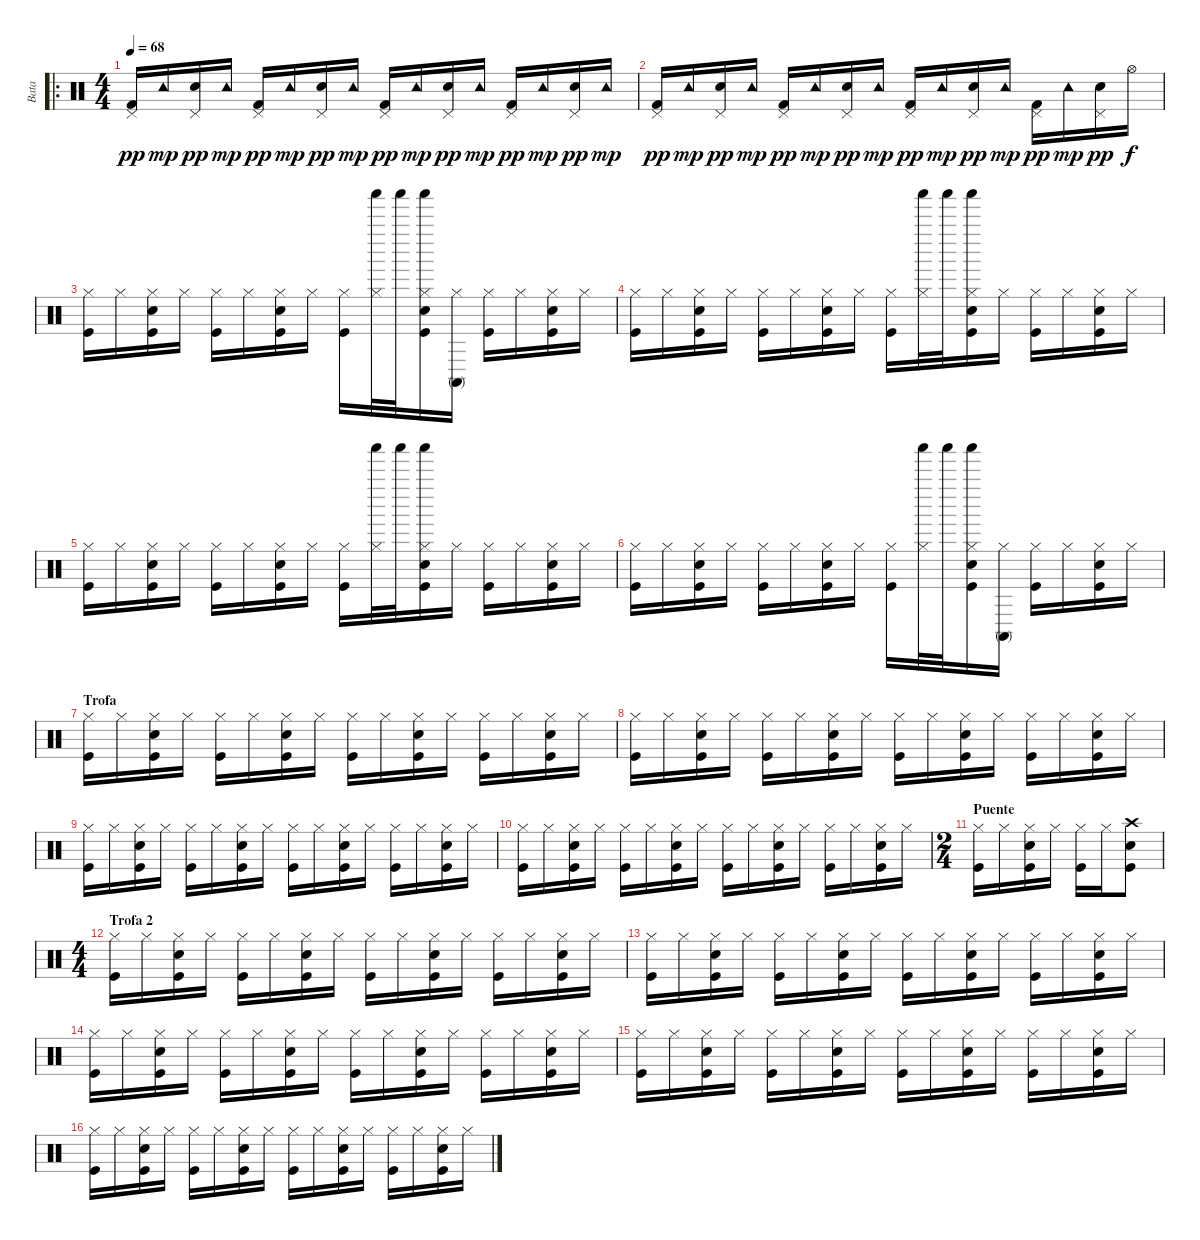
\track ("Bata" "Bata") {instrument percussion}
\staff {score}
\articulation defaults
\ro
\ts (4 4)
\tempo 68
\clef neutral
\ks c
("Pedal Hi-Hat (hit)" "Kick (hit) 2").16{dy pp} "Tambourine (hit)".16{dy mp} ("Pedal Hi-Hat (hit)" "Snare (hit) 2").16{dy pp} "Tambourine (hit)".16{dy mp} ("Pedal Hi-Hat (hit)" "Kick (hit) 2").16{dy pp} "Tambourine (hit)".16{dy mp} ("Pedal Hi-Hat (hit)" "Snare (hit) 2").16{dy pp} "Tambourine (hit)".16{dy mp} ("Pedal Hi-Hat (hit)" "Kick (hit) 2").16{dy pp} "Tambourine (hit)".16{dy mp} ("Pedal Hi-Hat (hit)" "Snare (hit) 2").16{dy pp} "Tambourine (hit)".16{dy mp} ("Pedal Hi-Hat (hit)" "Kick (hit) 2").16{dy pp} "Tambourine (hit)".16{dy mp} ("Pedal Hi-Hat (hit)" "Snare (hit) 2").16{dy pp} "Tambourine (hit)".16{dy mp} |
("Pedal Hi-Hat (hit)" "Kick (hit) 2").16{dy pp} "Tambourine (hit)".16{dy mp} ("Pedal Hi-Hat (hit)" "Snare (hit) 2").16{dy pp} "Tambourine (hit)".16{dy mp} ("Pedal Hi-Hat (hit)" "Kick (hit) 2").16{dy pp} "Tambourine (hit)".16{dy mp} ("Pedal Hi-Hat (hit)" "Snare (hit) 2").16{dy pp} "Tambourine (hit)".16{dy mp} ("Pedal Hi-Hat (hit)" "Kick (hit) 2").16{dy pp} "Tambourine (hit)".16{dy mp} ("Pedal Hi-Hat (hit)" "Snare (hit) 2").16{dy pp} "Tambourine (hit)".16{dy mp} ("Pedal Hi-Hat (hit)" "Kick (hit) 2").16{dy pp} "Tambourine (hit)".16{dy mp} ("Pedal Hi-Hat (hit)" "Snare (hit) 2").16{dy pp} "Hi-Hat (open)".16{dy f} |
("Hi-Hat (closed)" "Kick (hit)").16 "Hi-Hat (closed)".16 ("Hi-Hat (closed)" "Electric Snare (hit)" "Kick (hit)").16 "Hi-Hat (closed)".16 ("Hi-Hat (closed)" "Kick (hit)").16 "Hi-Hat (closed)".16 ("Hi-Hat (closed)" "Electric Snare (hit)" "Kick (hit)").16 "Hi-Hat (closed)".16 ("Hi-Hat (closed)" "Kick (hit)").16 ("Hi-Hat (closed)" "Shaker (hit)").32 "Shaker (hit)".32 ("Hi-Hat (closed)" "Shaker (hit)" "Electric Snare (hit)" "Kick (hit)").16 ("Hi-Hat (closed)" "Conga high (mute)").16 ("Hi-Hat (closed)" "Kick (hit)").16 "Hi-Hat (closed)".16 ("Hi-Hat (closed)" "Electric Snare (hit)" "Kick (hit)").16 "Hi-Hat (closed)".16 |
("Hi-Hat (closed)" "Kick (hit)").16 "Hi-Hat (closed)".16 ("Hi-Hat (closed)" "Electric Snare (hit)" "Kick (hit)").16 "Hi-Hat (closed)".16 ("Hi-Hat (closed)" "Kick (hit)").16 "Hi-Hat (closed)".16 ("Hi-Hat (closed)" "Electric Snare (hit)" "Kick (hit)").16 "Hi-Hat (closed)".16 ("Hi-Hat (closed)" "Kick (hit)").16 ("Hi-Hat (closed)" "Shaker (hit)").32 "Shaker (hit)".32 ("Hi-Hat (closed)" "Shaker (hit)" "Electric Snare (hit)" "Kick (hit)").16 "Hi-Hat (closed)".16 ("Hi-Hat (closed)" "Kick (hit)").16 "Hi-Hat (closed)".16 ("Hi-Hat (closed)" "Electric Snare (hit)" "Kick (hit)").16 "Hi-Hat (closed)".16 |
("Hi-Hat (closed)" "Kick (hit)").16 "Hi-Hat (closed)".16 ("Hi-Hat (closed)" "Electric Snare (hit)" "Kick (hit)").16 "Hi-Hat (closed)".16 ("Hi-Hat (closed)" "Kick (hit)").16 "Hi-Hat (closed)".16 ("Hi-Hat (closed)" "Electric Snare (hit)" "Kick (hit)").16 "Hi-Hat (closed)".16 ("Hi-Hat (closed)" "Kick (hit)").16 ("Hi-Hat (closed)" "Shaker (hit)").32 "Shaker (hit)".32 ("Hi-Hat (closed)" "Shaker (hit)" "Electric Snare (hit)" "Kick (hit)").16 "Hi-Hat (closed)".16 ("Hi-Hat (closed)" "Kick (hit)").16 "Hi-Hat (closed)".16 ("Hi-Hat (closed)" "Electric Snare (hit)" "Kick (hit)").16 "Hi-Hat (closed)".16 |
("Hi-Hat (closed)" "Kick (hit)").16 "Hi-Hat (closed)".16 ("Hi-Hat (closed)" "Electric Snare (hit)" "Kick (hit)").16 "Hi-Hat (closed)".16 ("Hi-Hat (closed)" "Kick (hit)").16 "Hi-Hat (closed)".16 ("Hi-Hat (closed)" "Electric Snare (hit)" "Kick (hit)").16 "Hi-Hat (closed)".16 ("Hi-Hat (closed)" "Kick (hit)").16 ("Hi-Hat (closed)" "Shaker (hit)").32 "Shaker (hit)".32 ("Hi-Hat (closed)" "Shaker (hit)" "Electric Snare (hit)" "Kick (hit)").16 ("Hi-Hat (closed)" "Conga high (mute)").16 ("Hi-Hat (closed)" "Kick (hit)").16 "Hi-Hat (closed)".16 ("Hi-Hat (closed)" "Electric Snare (hit)" "Kick (hit)").16 "Hi-Hat (closed)".16 |
\section ("" "Trofa")
("Hi-Hat (closed)" "Kick (hit)").16 "Hi-Hat (closed)".16 ("Hi-Hat (closed)" "Electric Snare (hit)" "Kick (hit)").16 "Hi-Hat (closed)".16 ("Hi-Hat (closed)" "Kick (hit)").16 "Hi-Hat (closed)".16 ("Hi-Hat (closed)" "Electric Snare (hit)" "Kick (hit)").16 "Hi-Hat (closed)".16 ("Hi-Hat (closed)" "Kick (hit)").16 "Hi-Hat (closed)".16 ("Hi-Hat (closed)" "Electric Snare (hit)" "Kick (hit)").16 "Hi-Hat (closed)".16 ("Hi-Hat (closed)" "Kick (hit)").16 "Hi-Hat (closed)".16 ("Hi-Hat (closed)" "Electric Snare (hit)" "Kick (hit)").16 "Hi-Hat (closed)".16 |
("Hi-Hat (closed)" "Kick (hit)").16 "Hi-Hat (closed)".16 ("Hi-Hat (closed)" "Electric Snare (hit)" "Kick (hit)").16 "Hi-Hat (closed)".16 ("Hi-Hat (closed)" "Kick (hit)").16 "Hi-Hat (closed)".16 ("Hi-Hat (closed)" "Electric Snare (hit)" "Kick (hit)").16 "Hi-Hat (closed)".16 ("Hi-Hat (closed)" "Kick (hit)").16 "Hi-Hat (closed)".16 ("Hi-Hat (closed)" "Electric Snare (hit)" "Kick (hit)").16 "Hi-Hat (closed)".16 ("Hi-Hat (closed)" "Kick (hit)").16 "Hi-Hat (closed)".16 ("Hi-Hat (closed)" "Electric Snare (hit)" "Kick (hit)").16 "Hi-Hat (closed)".16 |
("Hi-Hat (closed)" "Kick (hit)").16 "Hi-Hat (closed)".16 ("Hi-Hat (closed)" "Electric Snare (hit)" "Kick (hit)").16 "Hi-Hat (closed)".16 ("Hi-Hat (closed)" "Kick (hit)").16 "Hi-Hat (closed)".16 ("Hi-Hat (closed)" "Electric Snare (hit)" "Kick (hit)").16 "Hi-Hat (closed)".16 ("Hi-Hat (closed)" "Kick (hit)").16 "Hi-Hat (closed)".16 ("Hi-Hat (closed)" "Electric Snare (hit)" "Kick (hit)").16 "Hi-Hat (closed)".16 ("Hi-Hat (closed)" "Kick (hit)").16 "Hi-Hat (closed)".16 ("Hi-Hat (closed)" "Electric Snare (hit)" "Kick (hit)").16 "Hi-Hat (closed)".16 |
("Hi-Hat (closed)" "Kick (hit)").16 "Hi-Hat (closed)".16 ("Hi-Hat (closed)" "Electric Snare (hit)" "Kick (hit)").16 "Hi-Hat (closed)".16 ("Hi-Hat (closed)" "Kick (hit)").16 "Hi-Hat (closed)".16 ("Hi-Hat (closed)" "Electric Snare (hit)" "Kick (hit)").16 "Hi-Hat (closed)".16 ("Hi-Hat (closed)" "Kick (hit)").16 "Hi-Hat (closed)".16 ("Hi-Hat (closed)" "Electric Snare (hit)" "Kick (hit)").16 "Hi-Hat (closed)".16 ("Hi-Hat (closed)" "Kick (hit)").16 "Hi-Hat (closed)".16 ("Hi-Hat (closed)" "Electric Snare (hit)" "Kick (hit)").16 "Hi-Hat (closed)".16 |
\ts (2 4)
\section ("" "Puente")
("Hi-Hat (closed)" "Kick (hit)").16 "Hi-Hat (closed)".16 ("Hi-Hat (closed)" "Electric Snare (hit)" "Kick (hit)").16 "Hi-Hat (closed)".16 ("Hi-Hat (closed)" "Kick (hit)").16 "Hi-Hat (closed)".16 ("Crash high (hit)" "Electric Snare (hit)" "Kick (hit)").8 |
\ts (4 4)
\section ("" "Trofa 2")
("Hi-Hat (closed)" "Kick (hit)").16 "Hi-Hat (closed)".16 ("Hi-Hat (closed)" "Electric Snare (hit)" "Kick (hit)").16 "Hi-Hat (closed)".16 ("Hi-Hat (closed)" "Kick (hit)").16 "Hi-Hat (closed)".16 ("Hi-Hat (closed)" "Electric Snare (hit)" "Kick (hit)").16 "Hi-Hat (closed)".16 ("Hi-Hat (closed)" "Kick (hit)").16 "Hi-Hat (closed)".16 ("Hi-Hat (closed)" "Electric Snare (hit)" "Kick (hit)").16 "Hi-Hat (closed)".16 ("Hi-Hat (closed)" "Kick (hit)").16 "Hi-Hat (closed)".16 ("Hi-Hat (closed)" "Electric Snare (hit)" "Kick (hit)").16 "Hi-Hat (closed)".16 |
("Hi-Hat (closed)" "Kick (hit)").16 "Hi-Hat (closed)".16 ("Hi-Hat (closed)" "Electric Snare (hit)" "Kick (hit)").16 "Hi-Hat (closed)".16 ("Hi-Hat (closed)" "Kick (hit)").16 "Hi-Hat (closed)".16 ("Hi-Hat (closed)" "Electric Snare (hit)" "Kick (hit)").16 "Hi-Hat (closed)".16 ("Hi-Hat (closed)" "Kick (hit)").16 "Hi-Hat (closed)".16 ("Hi-Hat (closed)" "Electric Snare (hit)" "Kick (hit)").16 "Hi-Hat (closed)".16 ("Hi-Hat (closed)" "Kick (hit)").16 "Hi-Hat (closed)".16 ("Hi-Hat (closed)" "Electric Snare (hit)" "Kick (hit)").16 "Hi-Hat (closed)".16 |
("Hi-Hat (closed)" "Kick (hit)").16 "Hi-Hat (closed)".16 ("Hi-Hat (closed)" "Electric Snare (hit)" "Kick (hit)").16 "Hi-Hat (closed)".16 ("Hi-Hat (closed)" "Kick (hit)").16 "Hi-Hat (closed)".16 ("Hi-Hat (closed)" "Electric Snare (hit)" "Kick (hit)").16 "Hi-Hat (closed)".16 ("Hi-Hat (closed)" "Kick (hit)").16 "Hi-Hat (closed)".16 ("Hi-Hat (closed)" "Electric Snare (hit)" "Kick (hit)").16 "Hi-Hat (closed)".16 ("Hi-Hat (closed)" "Kick (hit)").16 "Hi-Hat (closed)".16 ("Hi-Hat (closed)" "Electric Snare (hit)" "Kick (hit)").16 "Hi-Hat (closed)".16 |
("Hi-Hat (closed)" "Kick (hit)").16 "Hi-Hat (closed)".16 ("Hi-Hat (closed)" "Electric Snare (hit)" "Kick (hit)").16 "Hi-Hat (closed)".16 ("Hi-Hat (closed)" "Kick (hit)").16 "Hi-Hat (closed)".16 ("Hi-Hat (closed)" "Electric Snare (hit)" "Kick (hit)").16 "Hi-Hat (closed)".16 ("Hi-Hat (closed)" "Kick (hit)").16 "Hi-Hat (closed)".16 ("Hi-Hat (closed)" "Electric Snare (hit)" "Kick (hit)").16 "Hi-Hat (closed)".16 ("Hi-Hat (closed)" "Kick (hit)").16 "Hi-Hat (closed)".16 ("Hi-Hat (closed)" "Electric Snare (hit)" "Kick (hit)").16 "Hi-Hat (closed)".16 |
("Hi-Hat (closed)" "Kick (hit)").16 "Hi-Hat (closed)".16 ("Hi-Hat (closed)" "Electric Snare (hit)" "Kick (hit)").16 "Hi-Hat (closed)".16 ("Hi-Hat (closed)" "Kick (hit)").16 "Hi-Hat (closed)".16 ("Hi-Hat (closed)" "Electric Snare (hit)" "Kick (hit)").16 "Hi-Hat (closed)".16 ("Hi-Hat (closed)" "Kick (hit)").16 "Hi-Hat (closed)".16 ("Hi-Hat (closed)" "Electric Snare (hit)" "Kick (hit)").16 "Hi-Hat (closed)".16 ("Hi-Hat (closed)" "Kick (hit)").16 "Hi-Hat (closed)".16 ("Hi-Hat (closed)" "Electric Snare (hit)" "Kick (hit)").16 "Hi-Hat (closed)".16
